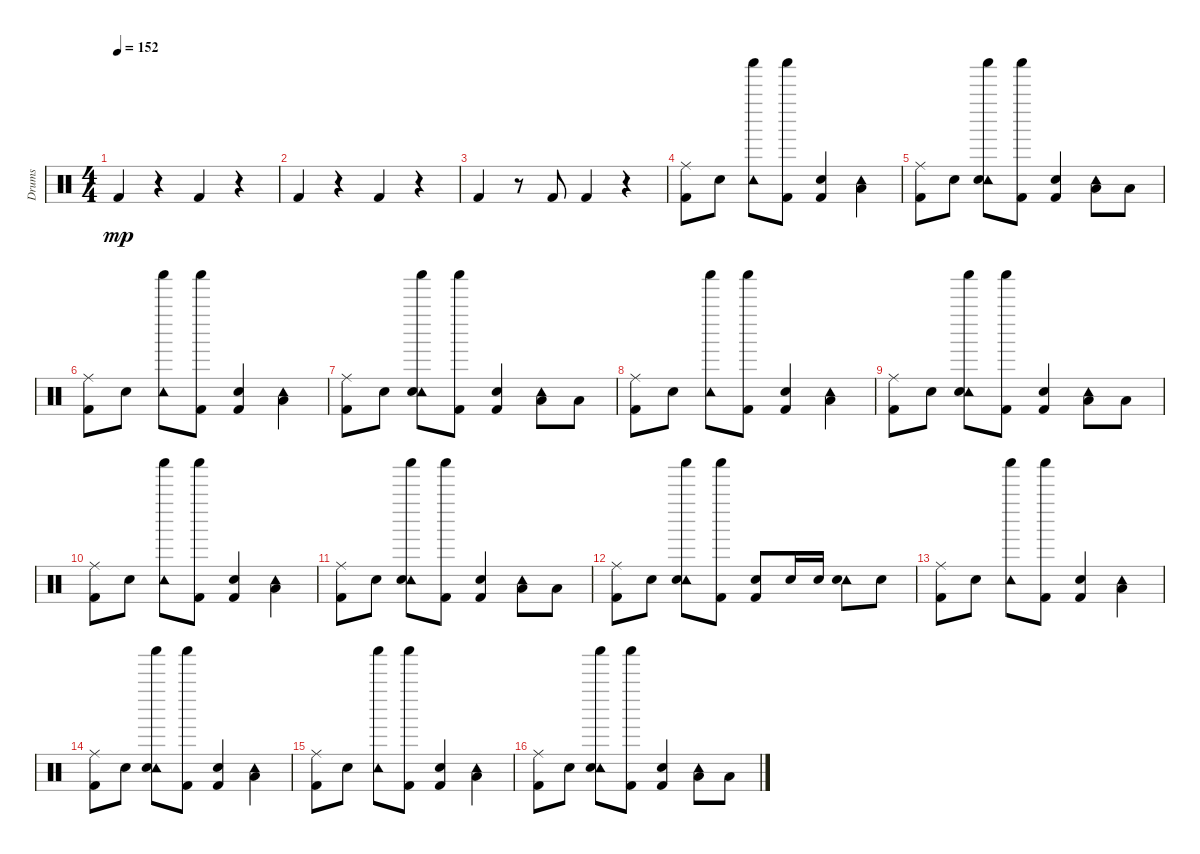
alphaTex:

\track ("Drums" "Drums") {instrument percussion}
\staff {score}
\articulation defaults
\ts (4 4)
\tempo 152
\clef neutral
\ks c "Kick (hit) 2".4{dy mp}
r.4 "Kick (hit) 2".4 r.4 |
"Kick (hit) 2".4 r.4 "Kick (hit) 2".4 r.4 |
"Kick (hit) 2".4 r.8 "Kick (hit) 2".8 "Kick (hit) 2".4 r.4 |
("Ride (middle)" "Kick (hit) 2").8 "Snare (hit) 2".8 ("Shaker (hit)" "Tambourine (hit)").8 ("Shaker (hit)" "Kick (hit) 2").8 ("Kick (hit) 2" "Snare (hit) 2").4 ("Tambourine (hit)" "Low Tom (hit)").4 |
("Ride (middle)" "Kick (hit) 2").8 "Snare (hit) 2".8 ("Shaker (hit)" "Tambourine (hit)" "Snare (hit) 2").8 ("Shaker (hit)" "Kick (hit) 2").8 ("Kick (hit) 2" "Snare (hit) 2").4 ("Tambourine (hit)" "Low Tom (hit)").8 "Low Tom (hit)".8 |
("Ride (middle)" "Kick (hit) 2").8 "Snare (hit) 2".8 ("Shaker (hit)" "Tambourine (hit)").8 ("Shaker (hit)" "Kick (hit) 2").8 ("Kick (hit) 2" "Snare (hit) 2").4 ("Tambourine (hit)" "Low Tom (hit)").4 |
("Ride (middle)" "Kick (hit) 2").8 "Snare (hit) 2".8 ("Shaker (hit)" "Tambourine (hit)" "Snare (hit) 2").8 ("Shaker (hit)" "Kick (hit) 2").8 ("Kick (hit) 2" "Snare (hit) 2").4 ("Tambourine (hit)" "Low Tom (hit)").8 "Low Tom (hit)".8 |
("Ride (middle)" "Kick (hit) 2").8 "Snare (hit) 2".8 ("Shaker (hit)" "Tambourine (hit)").8 ("Shaker (hit)" "Kick (hit) 2").8 ("Kick (hit) 2" "Snare (hit) 2").4 ("Tambourine (hit)" "Low Tom (hit)").4 |
("Ride (middle)" "Kick (hit) 2").8 "Snare (hit) 2".8 ("Shaker (hit)" "Tambourine (hit)" "Snare (hit) 2").8 ("Shaker (hit)" "Kick (hit) 2").8 ("Kick (hit) 2" "Snare (hit) 2").4 ("Tambourine (hit)" "Low Tom (hit)").8 "Low Tom (hit)".8 |
("Ride (middle)" "Kick (hit) 2").8 "Snare (hit) 2".8 ("Shaker (hit)" "Tambourine (hit)").8 ("Shaker (hit)" "Kick (hit) 2").8 ("Kick (hit) 2" "Snare (hit) 2").4 ("Tambourine (hit)" "Low Tom (hit)").4 |
("Ride (middle)" "Kick (hit) 2").8 "Snare (hit) 2".8 ("Shaker (hit)" "Tambourine (hit)" "Snare (hit) 2").8 ("Shaker (hit)" "Kick (hit) 2").8 ("Kick (hit) 2" "Snare (hit) 2").4 ("Tambourine (hit)" "Low Tom (hit)").8 "Low Tom (hit)".8 |
("Ride (middle)" "Kick (hit) 2").8 "Snare (hit) 2".8 ("Shaker (hit)" "Tambourine (hit)" "Snare (hit) 2").8 ("Shaker (hit)" "Kick (hit) 2").8 ("Kick (hit) 2" "Snare (hit) 2").8 "Snare (hit) 2".16 "Snare (hit) 2".16 ("Tambourine (hit)" "Snare (hit) 2").8 "Snare (hit) 2".8 |
("Ride (middle)" "Kick (hit) 2").8 "Snare (hit) 2".8 ("Shaker (hit)" "Tambourine (hit)").8 ("Shaker (hit)" "Kick (hit) 2").8 ("Kick (hit) 2" "Snare (hit) 2").4 ("Tambourine (hit)" "Low Tom (hit)").4 |
("Ride (middle)" "Kick (hit) 2").8 "Snare (hit) 2".8 ("Shaker (hit)" "Tambourine (hit)" "Snare (hit) 2").8 ("Shaker (hit)" "Kick (hit) 2").8 ("Kick (hit) 2" "Snare (hit) 2").4 ("Tambourine (hit)" "Low Tom (hit)").4 |
("Ride (middle)" "Kick (hit) 2").8 "Snare (hit) 2".8 ("Shaker (hit)" "Tambourine (hit)").8 ("Shaker (hit)" "Kick (hit) 2").8 ("Kick (hit) 2" "Snare (hit) 2").4 ("Tambourine (hit)" "Low Tom (hit)").4 |
("Ride (middle)" "Kick (hit) 2").8 "Snare (hit) 2".8 ("Shaker (hit)" "Tambourine (hit)" "Snare (hit) 2").8 ("Shaker (hit)" "Kick (hit) 2").8 ("Kick (hit) 2" "Snare (hit) 2").4 ("Tambourine (hit)" "Low Tom (hit)").8 "Low Tom (hit)".8
